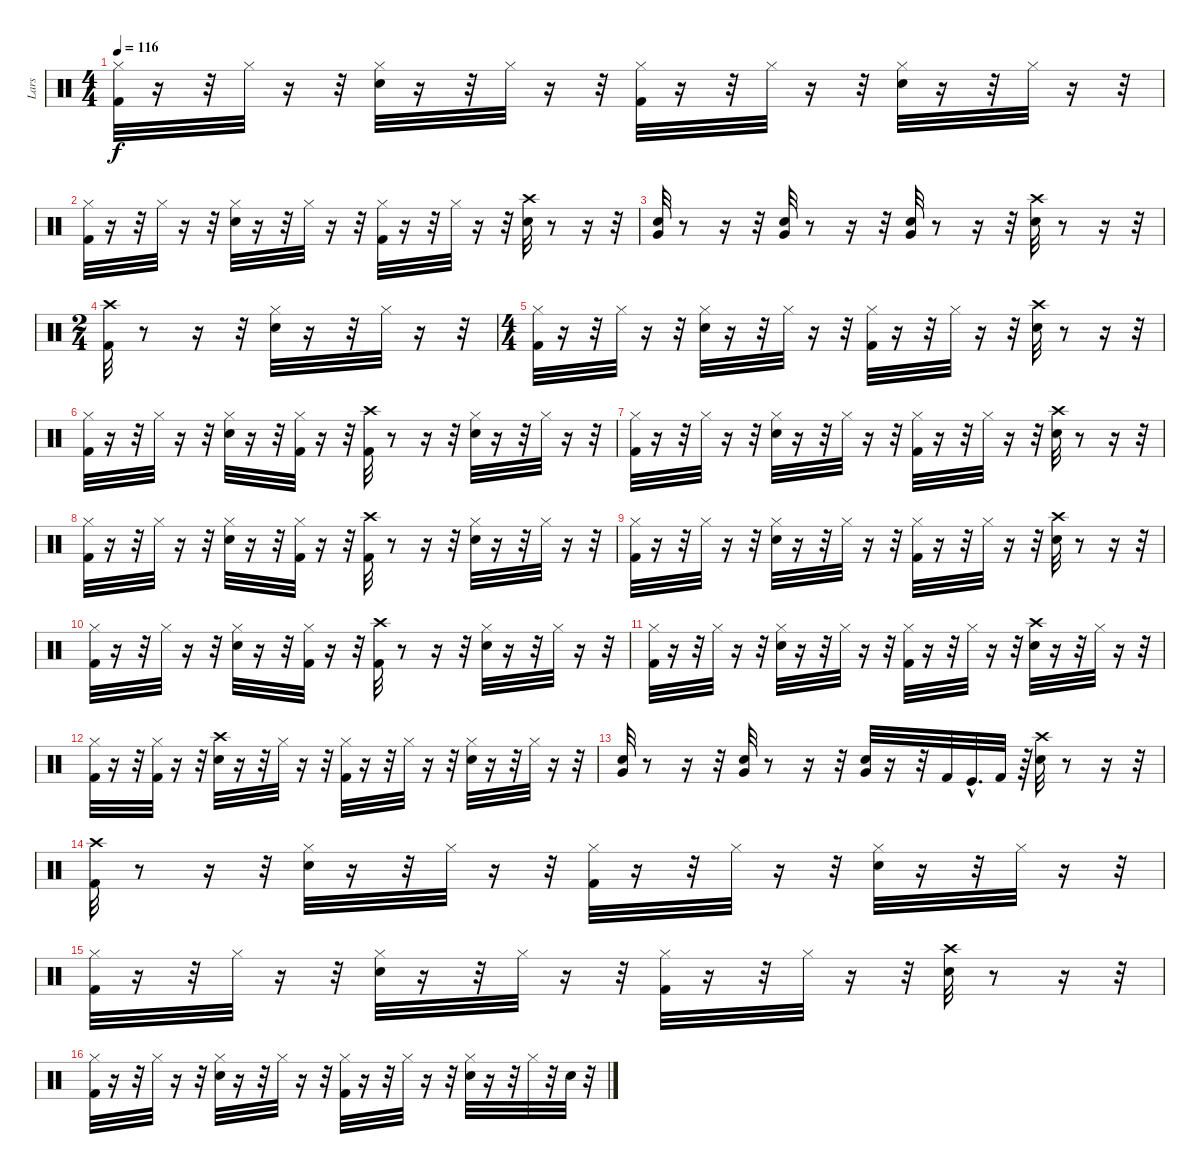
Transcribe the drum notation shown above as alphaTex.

\track ("Lars" "Lars") {instrument percussion}
\staff {score}
\articulation defaults
\ts (4 4)
\tempo 116
\clef neutral
\ks c
("Kick (hit) 2" "Hi-Hat (closed)").32{dy f} r.16 r.32 "Hi-Hat (closed)".32 r.16 r.32 ("Snare (hit) 2" "Hi-Hat (closed)").32 r.16 r.32 "Hi-Hat (closed)".32 r.16 r.32 ("Kick (hit) 2" "Hi-Hat (closed)").32 r.16 r.32 "Hi-Hat (closed)".32 r.16 r.32 ("Snare (hit) 2" "Hi-Hat (closed)").32 r.16 r.32 "Hi-Hat (closed)".32 r.16 r.32 |
("Kick (hit) 2" "Hi-Hat (closed)").32 r.16 r.32 "Hi-Hat (closed)".32 r.16 r.32 ("Snare (hit) 2" "Hi-Hat (closed)").32 r.16 r.32 "Hi-Hat (closed)".32 r.16 r.32 ("Hi-Hat (closed)" "Kick (hit) 2").32 r.16 r.32 "Hi-Hat (closed)".32 r.16 r.32 ("Crash high (hit)" "Snare (hit) 2").32 r.8 r.16 r.32 |
("Very Low Tom (hit)" "Snare (hit) 2").32 r.8 r.16 r.32 ("Very Low Tom (hit)" "Snare (hit) 2").32 r.8 r.16 r.32 ("Very Low Tom (hit)" "Snare (hit) 2").32 r.8 r.16 r.32 ("Crash high (hit)" "Snare (hit) 2").32 r.8 r.16 r.32 |
\ts (2 4)
("Kick (hit) 2" "Crash high (hit)").32 r.8 r.16 r.32 ("Hi-Hat (closed)" "Snare (hit) 2").32 r.16 r.32 "Hi-Hat (closed)".32 r.16 r.32 |
\ts (4 4)
("Kick (hit) 2" "Hi-Hat (closed)").32 r.16 r.32 "Hi-Hat (closed)".32 r.16 r.32 ("Snare (hit) 2" "Hi-Hat (closed)").32 r.16 r.32 "Hi-Hat (closed)".32 r.16 r.32 ("Hi-Hat (closed)" "Kick (hit) 2").32 r.16 r.32 "Hi-Hat (closed)".32 r.16 r.32 ("Crash high (hit)" "Snare (hit) 2").32 r.8 r.16 r.32 |
("Kick (hit) 2" "Hi-Hat (closed)").32 r.16 r.32 "Hi-Hat (closed)".32 r.16 r.32 ("Snare (hit) 2" "Hi-Hat (closed)").32 r.16 r.32 ("Kick (hit) 2" "Hi-Hat (closed)").32 r.16 r.32 ("Crash high (hit)" "Kick (hit) 2").32 r.8 r.16 r.32 ("Hi-Hat (closed)" "Snare (hit) 2").32 r.16 r.32 "Hi-Hat (closed)".32 r.16 r.32 |
("Kick (hit) 2" "Hi-Hat (closed)").32 r.16 r.32 "Hi-Hat (closed)".32 r.16 r.32 ("Snare (hit) 2" "Hi-Hat (closed)").32 r.16 r.32 "Hi-Hat (closed)".32 r.16 r.32 ("Hi-Hat (closed)" "Kick (hit) 2").32 r.16 r.32 "Hi-Hat (closed)".32 r.16 r.32 ("Crash high (hit)" "Snare (hit) 2").32 r.8 r.16 r.32 |
("Kick (hit) 2" "Hi-Hat (closed)").32 r.16 r.32 "Hi-Hat (closed)".32 r.16 r.32 ("Snare (hit) 2" "Hi-Hat (closed)").32 r.16 r.32 ("Kick (hit) 2" "Hi-Hat (closed)").32 r.16 r.32 ("Crash high (hit)" "Kick (hit) 2").32 r.8 r.16 r.32 ("Hi-Hat (closed)" "Snare (hit) 2").32 r.16 r.32 "Hi-Hat (closed)".32 r.16 r.32 |
("Kick (hit) 2" "Hi-Hat (closed)").32 r.16 r.32 "Hi-Hat (closed)".32 r.16 r.32 ("Snare (hit) 2" "Hi-Hat (closed)").32 r.16 r.32 "Hi-Hat (closed)".32 r.16 r.32 ("Hi-Hat (closed)" "Kick (hit) 2").32 r.16 r.32 "Hi-Hat (closed)".32 r.16 r.32 ("Crash high (hit)" "Snare (hit) 2").32 r.8 r.16 r.32 |
("Kick (hit) 2" "Hi-Hat (closed)").32 r.16 r.32 "Hi-Hat (closed)".32 r.16 r.32 ("Snare (hit) 2" "Hi-Hat (closed)").32 r.16 r.32 ("Kick (hit) 2" "Hi-Hat (closed)").32 r.16 r.32 ("Crash high (hit)" "Kick (hit) 2").32 r.8 r.16 r.32 ("Hi-Hat (closed)" "Snare (hit) 2").32 r.16 r.32 "Hi-Hat (closed)".32 r.16 r.32 |
("Kick (hit) 2" "Hi-Hat (closed)").32 r.16 r.32 "Hi-Hat (closed)".32 r.16 r.32 ("Snare (hit) 2" "Hi-Hat (closed)").32 r.16 r.32 "Hi-Hat (closed)".32 r.16 r.32 ("Hi-Hat (closed)" "Kick (hit) 2").32 r.16 r.32 "Hi-Hat (closed)".32 r.16 r.32 ("Crash high (hit)" "Snare (hit) 2").32 r.16 r.32 "Hi-Hat (closed)".32 r.16 r.32 |
("Hi-Hat (closed)" "Kick (hit) 2").32 r.16 r.32 ("Hi-Hat (closed)" "Kick (hit) 2").32 r.16 r.32 ("Crash high (hit)" "Snare (hit) 2").32 r.16 r.32 "Hi-Hat (closed)".32 r.16 r.32 ("Kick (hit) 2" "Hi-Hat (closed)").32 r.16 r.32 "Hi-Hat (closed)".32 r.16 r.32 ("Hi-Hat (closed)" "Snare (hit) 2").32 r.16 r.32 "Hi-Hat (closed)".32 r.16 r.32 |
("Very Low Tom (hit)" "Snare (hit) 2").32 r.8 r.16 r.32 ("Very Low Tom (hit)" "Snare (hit) 2").32 r.8 r.16 r.32 ("Very Low Tom (hit)" "Snare (hit) 2").32 r.16 r.32 "Kick (hit) 2".32 "Kick (hit)"{hac}.32{d} "Kick (hit) 2".32 r.64 ("Crash high (hit)" "Snare (hit) 2").32 r.8 r.16 r.32 |
("Kick (hit) 2" "Crash high (hit)").32 r.8 r.16 r.32 ("Hi-Hat (closed)" "Snare (hit) 2").32 r.16 r.32 "Hi-Hat (closed)".32 r.16 r.32 ("Hi-Hat (closed)" "Kick (hit) 2").32 r.16 r.32 "Hi-Hat (closed)".32 r.16 r.32 ("Snare (hit) 2" "Hi-Hat (closed)").32 r.16 r.32 "Hi-Hat (closed)".32 r.16 r.32 |
("Hi-Hat (closed)" "Kick (hit) 2").32 r.16 r.32 "Hi-Hat (closed)".32 r.16 r.32 ("Snare (hit) 2" "Hi-Hat (closed)").32 r.16 r.32 "Hi-Hat (closed)".32 r.16 r.32 ("Hi-Hat (closed)" "Kick (hit) 2").32 r.16 r.32 "Hi-Hat (closed)".32 r.16 r.32 ("Crash high (hit)" "Snare (hit) 2").32 r.8 r.16 r.32 |
("Kick (hit) 2" "Hi-Hat (closed)").32 r.16 r.32 "Hi-Hat (closed)".32 r.16 r.32 ("Snare (hit) 2" "Hi-Hat (closed)").32 r.16 r.32 "Hi-Hat (closed)".32 r.16 r.32 ("Hi-Hat (closed)" "Kick (hit) 2").32 r.16 r.32 "Hi-Hat (closed)".32 r.16 r.32 ("Snare (hit) 2" "Hi-Hat (closed)").32 r.16 r.32 "Hi-Hat (closed)".32 r.32 "Snare (hit) 2".32 r.32
